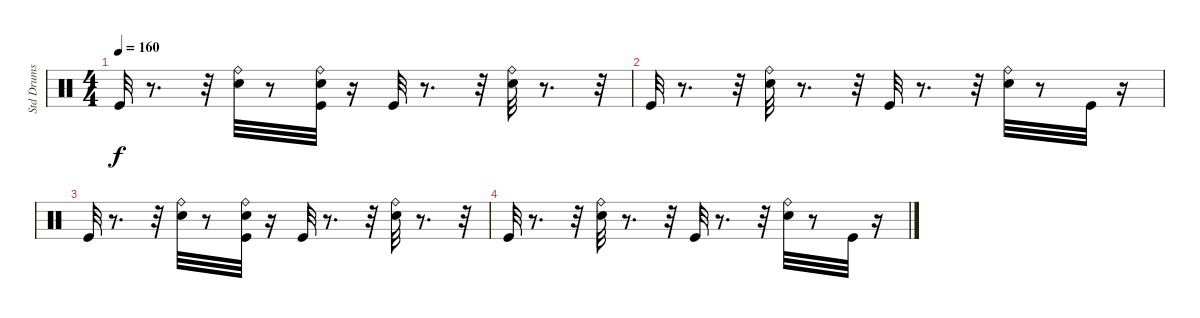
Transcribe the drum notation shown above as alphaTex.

\track ("Std Drums" "Std Drums") {instrument percussion}
\staff {score}
\articulation defaults
\ts (4 4)
\tempo 160
\clef neutral
\ks c "Kick (hit)".32{dy f volume 4}
r.8{d} r.32 ("Ride (bell)" "Snare (hit) 2").32{volume 3} r.8 ("Kick (hit)" "Snare (hit) 2" "Ride (bell)").32{volume 3} r.16 "Kick (hit)".32{volume 3} r.8{d} r.32 ("Snare (hit) 2" "Ride (bell)").32{volume 3} r.8{d} r.32 |
"Kick (hit)".32{volume 3} r.8{d} r.32 ("Ride (bell)" "Snare (hit) 2").32{volume 2} r.8{d} r.32 "Kick (hit)".32{volume 2} r.8{d} r.32 ("Ride (bell)" "Snare (hit) 2").32{volume 2} r.8 "Kick (hit)".32{volume 2} r.16 |
"Kick (hit)".32 r.8{d} r.32 ("Ride (bell)" "Snare (hit) 2").32{volume 2} r.8 ("Snare (hit) 2" "Kick (hit)" "Ride (bell)").32{volume 2} r.16 "Kick (hit)".32{volume 1} r.8{d} r.32 ("Ride (bell)" "Snare (hit) 2").32{volume 1} r.8{d} r.32 |
"Kick (hit)".32{volume 1} r.8{d} r.32 ("Ride (bell)" "Snare (hit) 2").32{volume 1} r.8{d} r.32 "Kick (hit)".32{volume 0} r.8{d} r.32 ("Snare (hit) 2" "Ride (bell)").32{volume 0} r.8 "Kick (hit)".32{volume 0} r.16
